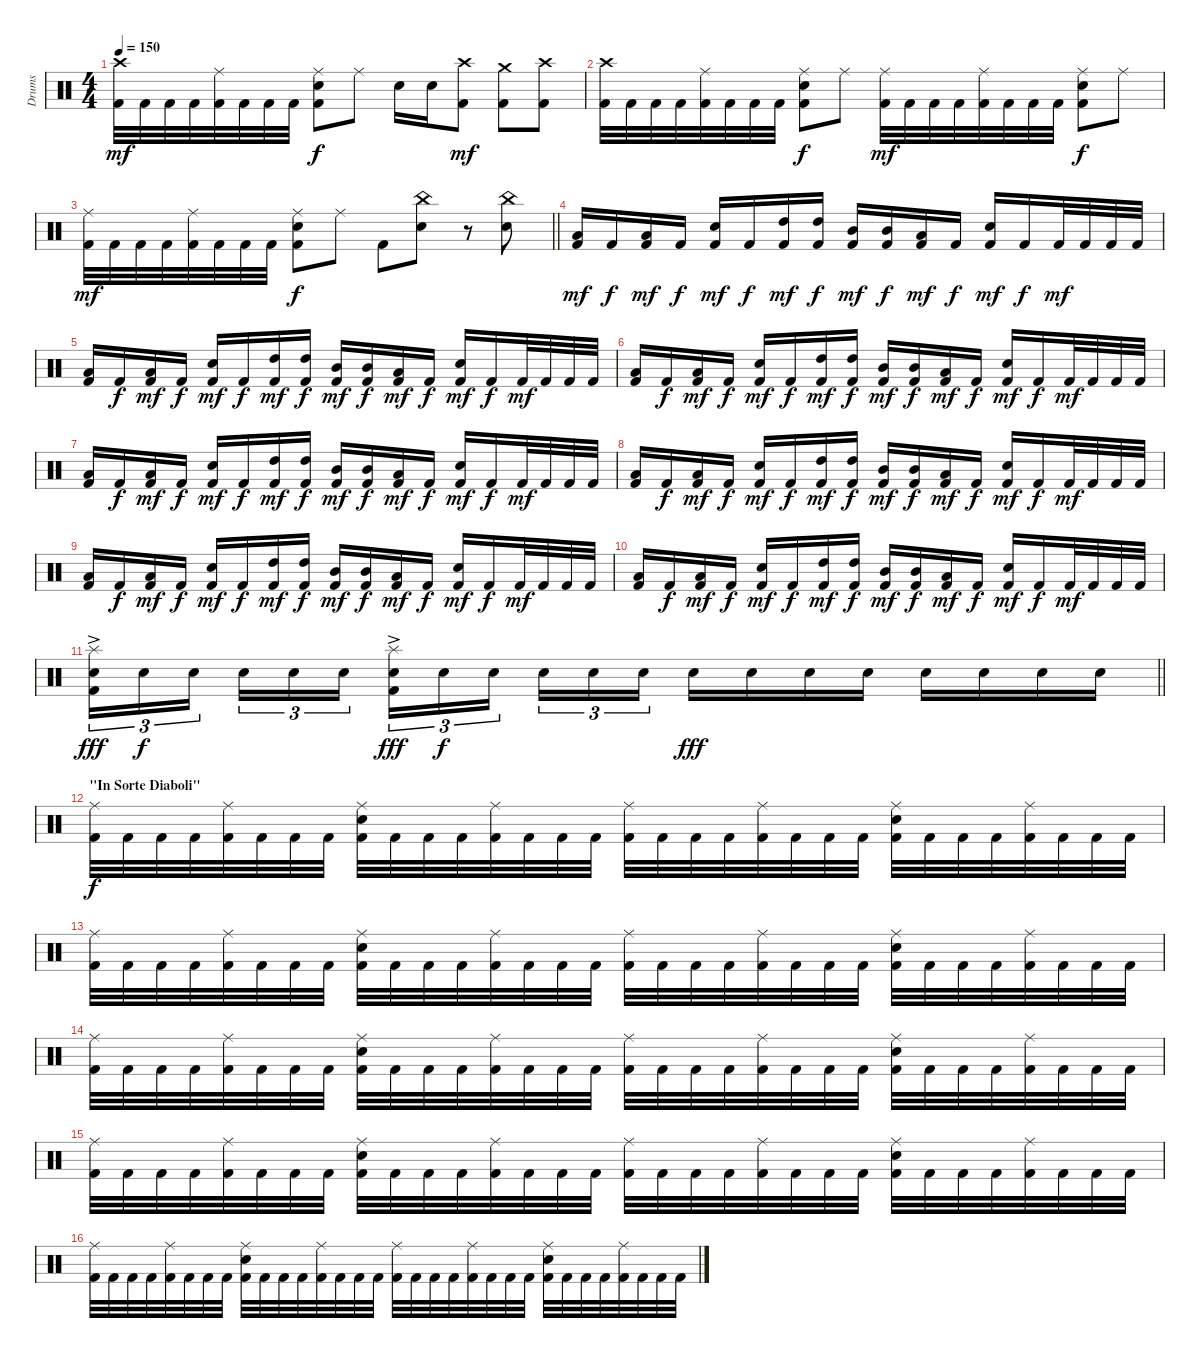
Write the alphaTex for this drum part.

\track ("Drums" "Drums") {instrument percussion}
\staff {score}
\articulation defaults
\ts (4 4)
\tempo 150
\clef neutral
\ks c
("Crash high (hit)" "Kick (hit) 2").32{dy mf} "Kick (hit) 2".32 "Kick (hit) 2".32 "Kick (hit) 2".32 ("Ride (middle)" "Kick (hit) 2").32 "Kick (hit) 2".32 "Kick (hit) 2".32 "Kick (hit) 2".32 ("Ride (middle)" "Electric Snare (hit)" "Kick (hit) 2").8{dy f} "Ride (middle)".8 "Electric Snare (hit)".16 "Electric Snare (hit)".16 ("Crash high (hit)" "Kick (hit) 2").8{dy mf} ("Crash medium (hit)" "Kick (hit) 2").8 ("Crash high (hit)" "Kick (hit) 2").8 |
("Crash high (hit)" "Kick (hit) 2").32 "Kick (hit) 2".32 "Kick (hit) 2".32 "Kick (hit) 2".32 ("Ride (middle)" "Kick (hit) 2").32 "Kick (hit) 2".32 "Kick (hit) 2".32 "Kick (hit) 2".32 ("Ride (middle)" "Electric Snare (hit)" "Kick (hit) 2").8{dy f} "Ride (middle)".8 ("Ride (middle)" "Kick (hit) 2").32{dy mf} "Kick (hit) 2".32 "Kick (hit) 2".32 "Kick (hit) 2".32 ("Ride (middle)" "Kick (hit) 2").32 "Kick (hit) 2".32 "Kick (hit) 2".32 "Kick (hit) 2".32 ("Ride (middle)" "Electric Snare (hit)" "Kick (hit) 2").8{dy f} "Ride (middle)".8 |
\barLineRight lightlight
("Ride (middle)" "Kick (hit) 2").32{dy mf} "Kick (hit) 2".32 "Kick (hit) 2".32 "Kick (hit) 2".32 ("Ride (middle)" "Kick (hit) 2").32 "Kick (hit) 2".32 "Kick (hit) 2".32 "Kick (hit) 2".32 ("Ride (middle)" "Electric Snare (hit)" "Kick (hit) 2").8{dy f} "Ride (middle)".8 "Kick (hit) 2".8 ("China (hit)" "Electric Snare (hit)").8 r.8 ("China (hit)" "Electric Snare (hit)").8 |
\section ("" "")
("Low Tom (hit)" "Kick (hit) 2").16{dy mf} "Kick (hit) 2".16{dy f} ("Low Tom (hit)" "Kick (hit) 2").16{dy mf} "Kick (hit) 2".16{dy f} ("Electric Snare (hit)" "Kick (hit) 2").16{dy mf} "Kick (hit) 2".16{dy f} ("High Tom (hit)" "Kick (hit) 2").16{dy mf} ("High Tom (hit)" "Kick (hit) 2").16{dy f} ("Mid Tom (hit)" "Kick (hit) 2").16{dy mf} ("Mid Tom (hit)" "Kick (hit) 2").16{dy f} ("Low Tom (hit)" "Kick (hit) 2").16{dy mf} "Kick (hit) 2".16{dy f} ("Electric Snare (hit)" "Kick (hit) 2").16{dy mf} "Kick (hit) 2".16{dy f} "Kick (hit) 2".32{dy mf} "Kick (hit) 2".32 "Kick (hit) 2".32 "Kick (hit) 2".32 |
("Low Tom (hit)" "Kick (hit) 2").16 "Kick (hit) 2".16{dy f} ("Low Tom (hit)" "Kick (hit) 2").16{dy mf} "Kick (hit) 2".16{dy f} ("Electric Snare (hit)" "Kick (hit) 2").16{dy mf} "Kick (hit) 2".16{dy f} ("High Tom (hit)" "Kick (hit) 2").16{dy mf} ("High Tom (hit)" "Kick (hit) 2").16{dy f} ("Mid Tom (hit)" "Kick (hit) 2").16{dy mf} ("Mid Tom (hit)" "Kick (hit) 2").16{dy f} ("Low Tom (hit)" "Kick (hit) 2").16{dy mf} "Kick (hit) 2".16{dy f} ("Electric Snare (hit)" "Kick (hit) 2").16{dy mf} "Kick (hit) 2".16{dy f} "Kick (hit) 2".32{dy mf} "Kick (hit) 2".32 "Kick (hit) 2".32 "Kick (hit) 2".32 |
("Low Tom (hit)" "Kick (hit) 2").16 "Kick (hit) 2".16{dy f} ("Low Tom (hit)" "Kick (hit) 2").16{dy mf} "Kick (hit) 2".16{dy f} ("Electric Snare (hit)" "Kick (hit) 2").16{dy mf} "Kick (hit) 2".16{dy f} ("High Tom (hit)" "Kick (hit) 2").16{dy mf} ("High Tom (hit)" "Kick (hit) 2").16{dy f} ("Mid Tom (hit)" "Kick (hit) 2").16{dy mf} ("Mid Tom (hit)" "Kick (hit) 2").16{dy f} ("Low Tom (hit)" "Kick (hit) 2").16{dy mf} "Kick (hit) 2".16{dy f} ("Electric Snare (hit)" "Kick (hit) 2").16{dy mf} "Kick (hit) 2".16{dy f} "Kick (hit) 2".32{dy mf} "Kick (hit) 2".32 "Kick (hit) 2".32 "Kick (hit) 2".32 |
("Low Tom (hit)" "Kick (hit) 2").16 "Kick (hit) 2".16{dy f} ("Low Tom (hit)" "Kick (hit) 2").16{dy mf} "Kick (hit) 2".16{dy f} ("Electric Snare (hit)" "Kick (hit) 2").16{dy mf} "Kick (hit) 2".16{dy f} ("High Tom (hit)" "Kick (hit) 2").16{dy mf} ("High Tom (hit)" "Kick (hit) 2").16{dy f} ("Mid Tom (hit)" "Kick (hit) 2").16{dy mf} ("Mid Tom (hit)" "Kick (hit) 2").16{dy f} ("Low Tom (hit)" "Kick (hit) 2").16{dy mf} "Kick (hit) 2".16{dy f} ("Electric Snare (hit)" "Kick (hit) 2").16{dy mf} "Kick (hit) 2".16{dy f} "Kick (hit) 2".32{dy mf} "Kick (hit) 2".32 "Kick (hit) 2".32 "Kick (hit) 2".32 |
("Low Tom (hit)" "Kick (hit) 2").16 "Kick (hit) 2".16{dy f} ("Low Tom (hit)" "Kick (hit) 2").16{dy mf} "Kick (hit) 2".16{dy f} ("Electric Snare (hit)" "Kick (hit) 2").16{dy mf} "Kick (hit) 2".16{dy f} ("High Tom (hit)" "Kick (hit) 2").16{dy mf} ("High Tom (hit)" "Kick (hit) 2").16{dy f} ("Mid Tom (hit)" "Kick (hit) 2").16{dy mf} ("Mid Tom (hit)" "Kick (hit) 2").16{dy f} ("Low Tom (hit)" "Kick (hit) 2").16{dy mf} "Kick (hit) 2".16{dy f} ("Electric Snare (hit)" "Kick (hit) 2").16{dy mf} "Kick (hit) 2".16{dy f} "Kick (hit) 2".32{dy mf} "Kick (hit) 2".32 "Kick (hit) 2".32 "Kick (hit) 2".32 |
("Low Tom (hit)" "Kick (hit) 2").16 "Kick (hit) 2".16{dy f} ("Low Tom (hit)" "Kick (hit) 2").16{dy mf} "Kick (hit) 2".16{dy f} ("Electric Snare (hit)" "Kick (hit) 2").16{dy mf} "Kick (hit) 2".16{dy f} ("High Tom (hit)" "Kick (hit) 2").16{dy mf} ("High Tom (hit)" "Kick (hit) 2").16{dy f} ("Mid Tom (hit)" "Kick (hit) 2").16{dy mf} ("Mid Tom (hit)" "Kick (hit) 2").16{dy f} ("Low Tom (hit)" "Kick (hit) 2").16{dy mf} "Kick (hit) 2".16{dy f} ("Electric Snare (hit)" "Kick (hit) 2").16{dy mf} "Kick (hit) 2".16{dy f} "Kick (hit) 2".32{dy mf} "Kick (hit) 2".32 "Kick (hit) 2".32 "Kick (hit) 2".32 |
("Low Tom (hit)" "Kick (hit) 2").16 "Kick (hit) 2".16{dy f} ("Low Tom (hit)" "Kick (hit) 2").16{dy mf} "Kick (hit) 2".16{dy f} ("Electric Snare (hit)" "Kick (hit) 2").16{dy mf} "Kick (hit) 2".16{dy f} ("High Tom (hit)" "Kick (hit) 2").16{dy mf} ("High Tom (hit)" "Kick (hit) 2").16{dy f} ("Mid Tom (hit)" "Kick (hit) 2").16{dy mf} ("Mid Tom (hit)" "Kick (hit) 2").16{dy f} ("Low Tom (hit)" "Kick (hit) 2").16{dy mf} "Kick (hit) 2".16{dy f} ("Electric Snare (hit)" "Kick (hit) 2").16{dy mf} "Kick (hit) 2".16{dy f} "Kick (hit) 2".32{dy mf} "Kick (hit) 2".32 "Kick (hit) 2".32 "Kick (hit) 2".32 |
\barLineRight lightlight
("Splash (hit)" "Electric Snare (hit)"{ac} "Kick (hit) 2").16{tu (3 2) dy fff} "Electric Snare (hit)".16{tu (3 2) dy f} "Electric Snare (hit)".16{tu (3 2)} "Electric Snare (hit)".16{tu (3 2)} "Electric Snare (hit)".16{tu (3 2)} "Electric Snare (hit)".16{tu (3 2)} ("Splash (hit)" "Electric Snare (hit)"{ac} "Kick (hit) 2").16{tu (3 2) dy fff} "Electric Snare (hit)".16{tu (3 2) dy f} "Electric Snare (hit)".16{tu (3 2)} "Electric Snare (hit)".16{tu (3 2)} "Electric Snare (hit)".16{tu (3 2)} "Electric Snare (hit)".16{tu (3 2)} "Electric Snare (hit)".16{dy fff} "Electric Snare (hit)".16 "Electric Snare (hit)".16 "Electric Snare (hit)".16 "Electric Snare (hit)".16 "Electric Snare (hit)".16 "Electric Snare (hit)".16 "Electric Snare (hit)".16 |
\section ("" "\"In Sorte Diaboli\"")
("Ride (middle)" "Kick (hit) 2").32{dy f} "Kick (hit) 2".32 "Kick (hit) 2".32 "Kick (hit) 2".32 ("Ride (middle)" "Kick (hit) 2").32 "Kick (hit) 2".32 "Kick (hit) 2".32 "Kick (hit) 2".32 ("Ride (middle)" "Electric Snare (hit)" "Kick (hit) 2").32 "Kick (hit) 2".32 "Kick (hit) 2".32 "Kick (hit) 2".32 ("Ride (middle)" "Kick (hit) 2").32 "Kick (hit) 2".32 "Kick (hit) 2".32 "Kick (hit) 2".32 ("Ride (middle)" "Kick (hit) 2").32 "Kick (hit) 2".32 "Kick (hit) 2".32 "Kick (hit) 2".32 ("Ride (middle)" "Kick (hit) 2").32 "Kick (hit) 2".32 "Kick (hit) 2".32 "Kick (hit) 2".32 ("Ride (middle)" "Electric Snare (hit)" "Kick (hit) 2").32 "Kick (hit) 2".32 "Kick (hit) 2".32 "Kick (hit) 2".32 ("Ride (middle)" "Kick (hit) 2").32 "Kick (hit) 2".32 "Kick (hit) 2".32 "Kick (hit) 2".32 |
("Ride (middle)" "Kick (hit) 2").32 "Kick (hit) 2".32 "Kick (hit) 2".32 "Kick (hit) 2".32 ("Ride (middle)" "Kick (hit) 2").32 "Kick (hit) 2".32 "Kick (hit) 2".32 "Kick (hit) 2".32 ("Ride (middle)" "Electric Snare (hit)" "Kick (hit) 2").32 "Kick (hit) 2".32 "Kick (hit) 2".32 "Kick (hit) 2".32 ("Ride (middle)" "Kick (hit) 2").32 "Kick (hit) 2".32 "Kick (hit) 2".32 "Kick (hit) 2".32 ("Ride (middle)" "Kick (hit) 2").32 "Kick (hit) 2".32 "Kick (hit) 2".32 "Kick (hit) 2".32 ("Ride (middle)" "Kick (hit) 2").32 "Kick (hit) 2".32 "Kick (hit) 2".32 "Kick (hit) 2".32 ("Ride (middle)" "Electric Snare (hit)" "Kick (hit) 2").32 "Kick (hit) 2".32 "Kick (hit) 2".32 "Kick (hit) 2".32 ("Ride (middle)" "Kick (hit) 2").32 "Kick (hit) 2".32 "Kick (hit) 2".32 "Kick (hit) 2".32 |
("Ride (middle)" "Kick (hit) 2").32 "Kick (hit) 2".32 "Kick (hit) 2".32 "Kick (hit) 2".32 ("Ride (middle)" "Kick (hit) 2").32 "Kick (hit) 2".32 "Kick (hit) 2".32 "Kick (hit) 2".32 ("Ride (middle)" "Electric Snare (hit)" "Kick (hit) 2").32 "Kick (hit) 2".32 "Kick (hit) 2".32 "Kick (hit) 2".32 ("Ride (middle)" "Kick (hit) 2").32 "Kick (hit) 2".32 "Kick (hit) 2".32 "Kick (hit) 2".32 ("Ride (middle)" "Kick (hit) 2").32 "Kick (hit) 2".32 "Kick (hit) 2".32 "Kick (hit) 2".32 ("Ride (middle)" "Kick (hit) 2").32 "Kick (hit) 2".32 "Kick (hit) 2".32 "Kick (hit) 2".32 ("Ride (middle)" "Electric Snare (hit)" "Kick (hit) 2").32 "Kick (hit) 2".32 "Kick (hit) 2".32 "Kick (hit) 2".32 ("Ride (middle)" "Kick (hit) 2").32 "Kick (hit) 2".32 "Kick (hit) 2".32 "Kick (hit) 2".32 |
("Ride (middle)" "Kick (hit) 2").32 "Kick (hit) 2".32 "Kick (hit) 2".32 "Kick (hit) 2".32 ("Ride (middle)" "Kick (hit) 2").32 "Kick (hit) 2".32 "Kick (hit) 2".32 "Kick (hit) 2".32 ("Ride (middle)" "Electric Snare (hit)" "Kick (hit) 2").32 "Kick (hit) 2".32 "Kick (hit) 2".32 "Kick (hit) 2".32 ("Ride (middle)" "Kick (hit) 2").32 "Kick (hit) 2".32 "Kick (hit) 2".32 "Kick (hit) 2".32 ("Ride (middle)" "Kick (hit) 2").32 "Kick (hit) 2".32 "Kick (hit) 2".32 "Kick (hit) 2".32 ("Ride (middle)" "Kick (hit) 2").32 "Kick (hit) 2".32 "Kick (hit) 2".32 "Kick (hit) 2".32 ("Ride (middle)" "Electric Snare (hit)" "Kick (hit) 2").32 "Kick (hit) 2".32 "Kick (hit) 2".32 "Kick (hit) 2".32 ("Ride (middle)" "Kick (hit) 2").32 "Kick (hit) 2".32 "Kick (hit) 2".32 "Kick (hit) 2".32 |
("Ride (middle)" "Kick (hit) 2").32 "Kick (hit) 2".32 "Kick (hit) 2".32 "Kick (hit) 2".32 ("Ride (middle)" "Kick (hit) 2").32 "Kick (hit) 2".32 "Kick (hit) 2".32 "Kick (hit) 2".32 ("Ride (middle)" "Electric Snare (hit)" "Kick (hit) 2").32 "Kick (hit) 2".32 "Kick (hit) 2".32 "Kick (hit) 2".32 ("Ride (middle)" "Kick (hit) 2").32 "Kick (hit) 2".32 "Kick (hit) 2".32 "Kick (hit) 2".32 ("Ride (middle)" "Kick (hit) 2").32 "Kick (hit) 2".32 "Kick (hit) 2".32 "Kick (hit) 2".32 ("Ride (middle)" "Kick (hit) 2").32 "Kick (hit) 2".32 "Kick (hit) 2".32 "Kick (hit) 2".32 ("Ride (middle)" "Electric Snare (hit)" "Kick (hit) 2").32 "Kick (hit) 2".32 "Kick (hit) 2".32 "Kick (hit) 2".32 ("Ride (middle)" "Kick (hit) 2").32 "Kick (hit) 2".32 "Kick (hit) 2".32 "Kick (hit) 2".32
